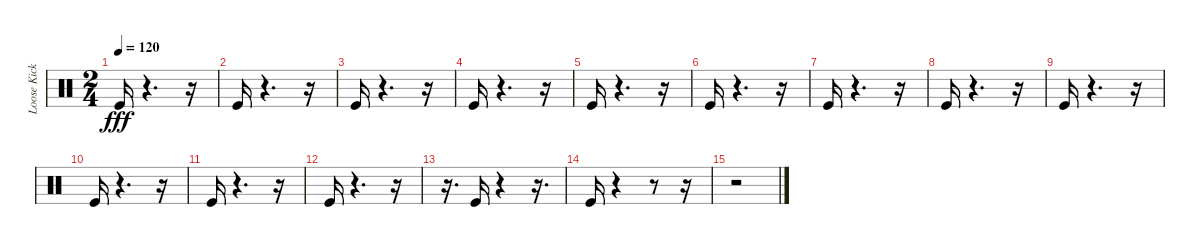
\track ("Loose Kick (1) (1) (1) (1)" "Loose Kick") {instrument percussion}
\staff {score}
\articulation defaults
\ts (2 4)
\tempo 120
\clef neutral
\ks c "Kick (hit)".16{dy fff}
r.4{d} r.16 |
"Kick (hit)".16 r.4{d} r.16 |
"Kick (hit)".16 r.4{d} r.16 |
"Kick (hit)".16 r.4{d} r.16 |
"Kick (hit)".16 r.4{d} r.16 |
"Kick (hit)".16 r.4{d} r.16 |
"Kick (hit)".16 r.4{d} r.16 |
"Kick (hit)".16 r.4{d} r.16 |
"Kick (hit)".16 r.4{d} r.16 |
"Kick (hit)".16 r.4{d} r.16 |
"Kick (hit)".16 r.4{d} r.16 |
"Kick (hit)".16 r.4{d} r.16 |
r.16{d} "Kick (hit)".16 r.4 r.16{d} |
"Kick (hit)".16 r.4 r.8 r.16 |
r.2
